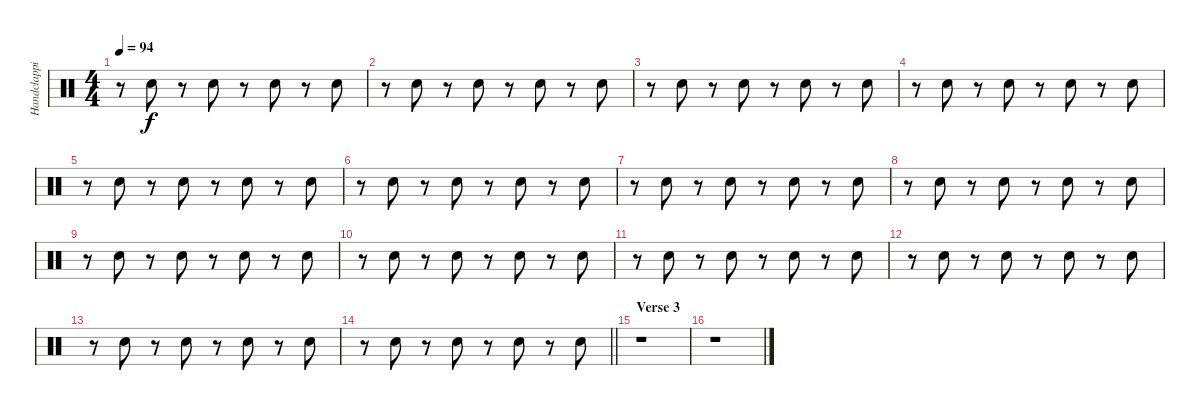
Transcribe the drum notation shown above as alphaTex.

\track ("Handclapping" "Handclappi") {instrument percussion}
\staff {score}
\articulation defaults
\ts (4 4)
\tempo 94
\clef neutral
\ks c
r.8{dy f} "Hand Clap (hit)".8 r.8 "Hand Clap (hit)".8 r.8 "Hand Clap (hit)".8 r.8 "Hand Clap (hit)".8 |
r.8 "Hand Clap (hit)".8 r.8 "Hand Clap (hit)".8 r.8 "Hand Clap (hit)".8 r.8 "Hand Clap (hit)".8 |
r.8 "Hand Clap (hit)".8 r.8 "Hand Clap (hit)".8 r.8 "Hand Clap (hit)".8 r.8 "Hand Clap (hit)".8 |
r.8 "Hand Clap (hit)".8 r.8 "Hand Clap (hit)".8 r.8 "Hand Clap (hit)".8 r.8 "Hand Clap (hit)".8 |
r.8 "Hand Clap (hit)".8 r.8 "Hand Clap (hit)".8 r.8 "Hand Clap (hit)".8 r.8 "Hand Clap (hit)".8 |
r.8 "Hand Clap (hit)".8 r.8 "Hand Clap (hit)".8 r.8 "Hand Clap (hit)".8 r.8 "Hand Clap (hit)".8 |
r.8 "Hand Clap (hit)".8 r.8 "Hand Clap (hit)".8 r.8 "Hand Clap (hit)".8 r.8 "Hand Clap (hit)".8 |
r.8 "Hand Clap (hit)".8 r.8 "Hand Clap (hit)".8 r.8 "Hand Clap (hit)".8 r.8 "Hand Clap (hit)".8 |
r.8 "Hand Clap (hit)".8 r.8 "Hand Clap (hit)".8 r.8 "Hand Clap (hit)".8 r.8 "Hand Clap (hit)".8 |
r.8 "Hand Clap (hit)".8 r.8 "Hand Clap (hit)".8 r.8 "Hand Clap (hit)".8 r.8 "Hand Clap (hit)".8 |
r.8 "Hand Clap (hit)".8 r.8 "Hand Clap (hit)".8 r.8 "Hand Clap (hit)".8 r.8 "Hand Clap (hit)".8 |
r.8 "Hand Clap (hit)".8 r.8 "Hand Clap (hit)".8 r.8 "Hand Clap (hit)".8 r.8 "Hand Clap (hit)".8 |
r.8 "Hand Clap (hit)".8 r.8 "Hand Clap (hit)".8 r.8 "Hand Clap (hit)".8 r.8 "Hand Clap (hit)".8 |
\barLineRight lightlight
r.8 "Hand Clap (hit)".8 r.8 "Hand Clap (hit)".8 r.8 "Hand Clap (hit)".8 r.8 "Hand Clap (hit)".8 |
\section ("" "Verse 3")
r.1 |
r.1
